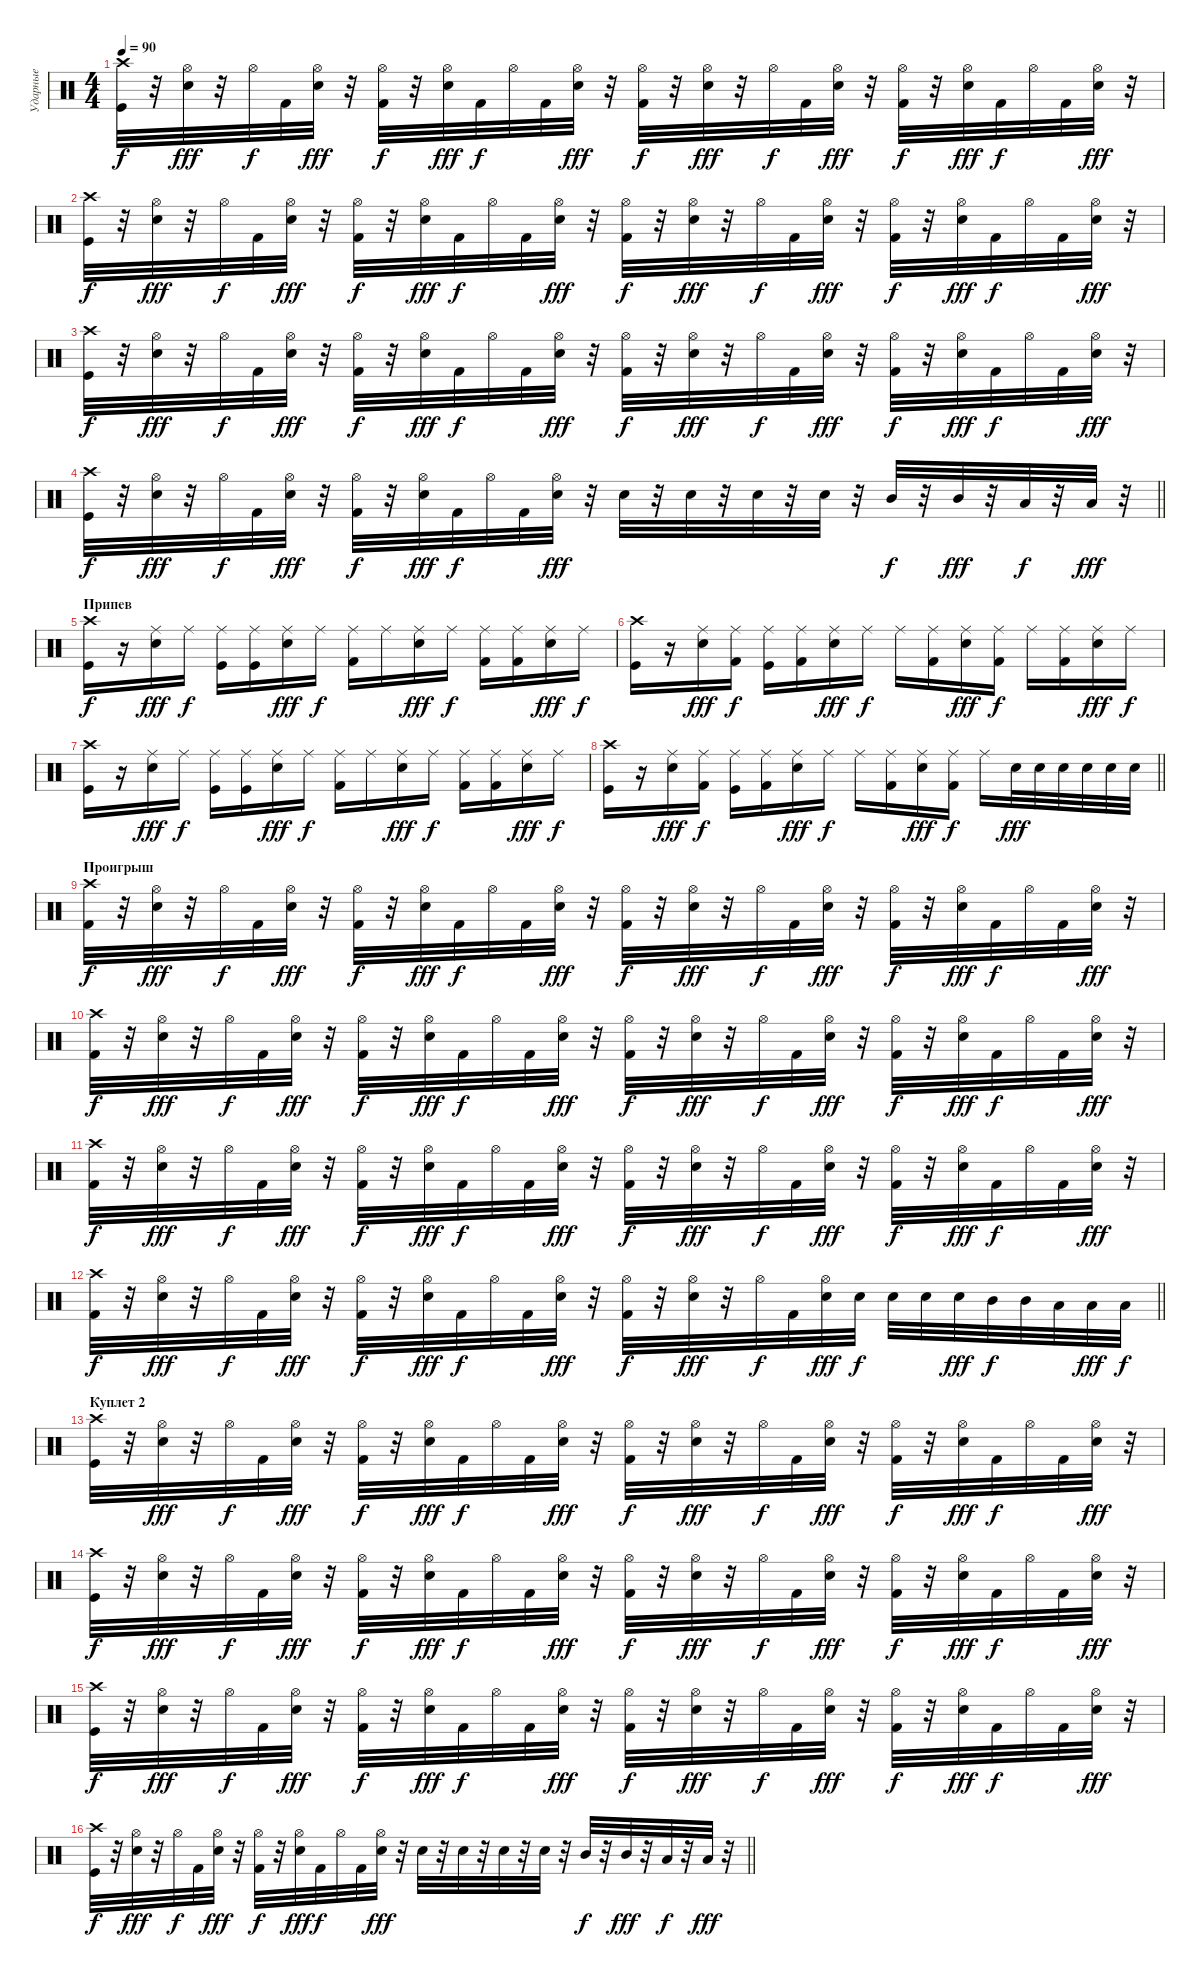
\track ("Ударные" "Ударные") {instrument percussion}
\staff {score}
\articulation defaults
\ts (4 4)
\tempo 90
\clef neutral
\ks c
("Crash high (hit)" "Kick (hit)").32{dy f} r.32 ("Hi-Hat (open)" "Snare (hit) 2").32{dy fff} r.32 "Hi-Hat (open)".32{dy f} "Kick (hit) 2".32 ("Hi-Hat (open)" "Snare (hit) 2").32{dy fff} r.32 ("Hi-Hat (open)" "Kick (hit) 2").32{dy f} r.32 ("Hi-Hat (open)" "Snare (hit) 2").32{dy fff} "Kick (hit) 2".32{dy f} "Hi-Hat (open)".32 "Kick (hit) 2".32 ("Hi-Hat (open)" "Snare (hit) 2").32{dy fff} r.32 ("Hi-Hat (open)" "Kick (hit) 2").32{dy f} r.32 ("Hi-Hat (open)" "Snare (hit) 2").32{dy fff} r.32 "Hi-Hat (open)".32{dy f} "Kick (hit) 2".32 ("Hi-Hat (open)" "Snare (hit) 2").32{dy fff} r.32 ("Hi-Hat (open)" "Kick (hit) 2").32{dy f} r.32 ("Hi-Hat (open)" "Snare (hit) 2").32{dy fff} "Kick (hit) 2".32{dy f} "Hi-Hat (open)".32 "Kick (hit) 2".32 ("Hi-Hat (open)" "Snare (hit) 2").32{dy fff} r.32 |
("Crash high (hit)" "Kick (hit)").32{dy f} r.32 ("Hi-Hat (open)" "Snare (hit) 2").32{dy fff} r.32 "Hi-Hat (open)".32{dy f} "Kick (hit) 2".32 ("Hi-Hat (open)" "Snare (hit) 2").32{dy fff} r.32 ("Hi-Hat (open)" "Kick (hit) 2").32{dy f} r.32 ("Hi-Hat (open)" "Snare (hit) 2").32{dy fff} "Kick (hit) 2".32{dy f} "Hi-Hat (open)".32 "Kick (hit) 2".32 ("Hi-Hat (open)" "Snare (hit) 2").32{dy fff} r.32 ("Hi-Hat (open)" "Kick (hit) 2").32{dy f} r.32 ("Hi-Hat (open)" "Snare (hit) 2").32{dy fff} r.32 "Hi-Hat (open)".32{dy f} "Kick (hit) 2".32 ("Hi-Hat (open)" "Snare (hit) 2").32{dy fff} r.32 ("Hi-Hat (open)" "Kick (hit) 2").32{dy f} r.32 ("Hi-Hat (open)" "Snare (hit) 2").32{dy fff} "Kick (hit) 2".32{dy f} "Hi-Hat (open)".32 "Kick (hit) 2".32 ("Hi-Hat (open)" "Snare (hit) 2").32{dy fff} r.32 |
("Crash high (hit)" "Kick (hit)").32{dy f} r.32 ("Hi-Hat (open)" "Snare (hit) 2").32{dy fff} r.32 "Hi-Hat (open)".32{dy f} "Kick (hit) 2".32 ("Hi-Hat (open)" "Snare (hit) 2").32{dy fff} r.32 ("Hi-Hat (open)" "Kick (hit) 2").32{dy f} r.32 ("Hi-Hat (open)" "Snare (hit) 2").32{dy fff} "Kick (hit) 2".32{dy f} "Hi-Hat (open)".32 "Kick (hit) 2".32 ("Hi-Hat (open)" "Snare (hit) 2").32{dy fff} r.32 ("Hi-Hat (open)" "Kick (hit) 2").32{dy f} r.32 ("Hi-Hat (open)" "Snare (hit) 2").32{dy fff} r.32 "Hi-Hat (open)".32{dy f} "Kick (hit) 2".32 ("Hi-Hat (open)" "Snare (hit) 2").32{dy fff} r.32 ("Hi-Hat (open)" "Kick (hit) 2").32{dy f} r.32 ("Hi-Hat (open)" "Snare (hit) 2").32{dy fff} "Kick (hit) 2".32{dy f} "Hi-Hat (open)".32 "Kick (hit) 2".32 ("Hi-Hat (open)" "Snare (hit) 2").32{dy fff} r.32 |
\barLineRight lightlight
("Crash high (hit)" "Kick (hit)").32{dy f} r.32 ("Hi-Hat (open)" "Snare (hit) 2").32{dy fff} r.32 "Hi-Hat (open)".32{dy f} "Kick (hit) 2".32 ("Hi-Hat (open)" "Snare (hit) 2").32{dy fff} r.32 ("Hi-Hat (open)" "Kick (hit) 2").32{dy f} r.32 ("Hi-Hat (open)" "Snare (hit) 2").32{dy fff} "Kick (hit) 2".32{dy f} "Hi-Hat (open)".32 "Kick (hit) 2".32 ("Hi-Hat (open)" "Snare (hit) 2").32{dy fff} r.32 "Snare (hit) 2".32 r.32 "Snare (hit) 2".32 r.32 "Snare (hit) 2".32 r.32 "Snare (hit) 2".32 r.32 "Mid Tom (hit)".32{dy f} r.32 "Mid Tom (hit)".32{dy fff} r.32 "Low Tom (hit)".32{dy f} r.32 "Low Tom (hit)".32{dy fff} r.32 |
\section ("" "Припев")
("Crash high (hit)" "Kick (hit)").16{dy f} r.16 ("Ride (middle)" "Snare (hit) 2").16{dy fff} "Ride (middle)".16{dy f} ("Ride (middle)" "Kick (hit)").16 ("Ride (middle)" "Kick (hit)").16 ("Ride (middle)" "Snare (hit) 2").16{dy fff} "Ride (middle)".16{dy f} ("Ride (middle)" "Kick (hit) 2").16 "Ride (middle)".16 ("Ride (middle)" "Snare (hit) 2").16{dy fff} "Ride (middle)".16{dy f} ("Ride (middle)" "Kick (hit) 2").16 ("Ride (middle)" "Kick (hit) 2").16 ("Ride (middle)" "Snare (hit) 2").16{dy fff} "Ride (middle)".16{dy f} |
("Crash high (hit)" "Kick (hit)").16 r.16 ("Ride (middle)" "Snare (hit) 2").16{dy fff} ("Ride (middle)" "Kick (hit) 2").16{dy f} ("Ride (middle)" "Kick (hit)").16 ("Ride (middle)" "Kick (hit) 2").16 ("Ride (middle)" "Snare (hit) 2").16{dy fff} "Ride (middle)".16{dy f} "Ride (middle)".16 ("Ride (middle)" "Kick (hit) 2").16 ("Ride (middle)" "Snare (hit) 2").16{dy fff} ("Ride (middle)" "Kick (hit) 2").16{dy f} "Ride (middle)".16 ("Ride (middle)" "Kick (hit) 2").16 ("Ride (middle)" "Snare (hit) 2").16{dy fff} "Ride (middle)".16{dy f} |
("Crash high (hit)" "Kick (hit)").16 r.16 ("Ride (middle)" "Snare (hit) 2").16{dy fff} "Ride (middle)".16{dy f} ("Ride (middle)" "Kick (hit)").16 ("Ride (middle)" "Kick (hit)").16 ("Ride (middle)" "Snare (hit) 2").16{dy fff} "Ride (middle)".16{dy f} ("Ride (middle)" "Kick (hit) 2").16 "Ride (middle)".16 ("Ride (middle)" "Snare (hit) 2").16{dy fff} "Ride (middle)".16{dy f} ("Ride (middle)" "Kick (hit) 2").16 ("Ride (middle)" "Kick (hit) 2").16 ("Ride (middle)" "Snare (hit) 2").16{dy fff} "Ride (middle)".16{dy f} |
\barLineRight lightlight
("Crash high (hit)" "Kick (hit)").16 r.16 ("Ride (middle)" "Snare (hit) 2").16{dy fff} ("Ride (middle)" "Kick (hit) 2").16{dy f} ("Ride (middle)" "Kick (hit)").16 ("Ride (middle)" "Kick (hit) 2").16 ("Ride (middle)" "Snare (hit) 2").16{dy fff} "Ride (middle)".16{dy f} "Ride (middle)".16 ("Ride (middle)" "Kick (hit) 2").16 ("Ride (middle)" "Snare (hit) 2").16{dy fff} ("Ride (middle)" "Kick (hit) 2").16{dy f} "Ride (middle)".16 "Snare (hit) 2".32{dy fff} "Snare (hit) 2".32 "Snare (hit) 2".32 "Snare (hit) 2".32 "Snare (hit) 2".32 "Snare (hit) 2".32 |
\section ("" "Проигрыш")
("Crash high (hit)" "Kick (hit) 2").32{dy f} r.32 ("Hi-Hat (open)" "Snare (hit) 2").32{dy fff} r.32 "Hi-Hat (open)".32{dy f} "Kick (hit) 2".32 ("Hi-Hat (open)" "Snare (hit) 2").32{dy fff} r.32 ("Hi-Hat (open)" "Kick (hit) 2").32{dy f} r.32 ("Hi-Hat (open)" "Snare (hit) 2").32{dy fff} "Kick (hit) 2".32{dy f} "Hi-Hat (open)".32 "Kick (hit) 2".32 ("Hi-Hat (open)" "Snare (hit) 2").32{dy fff} r.32 ("Hi-Hat (open)" "Kick (hit) 2").32{dy f} r.32 ("Hi-Hat (open)" "Snare (hit) 2").32{dy fff} r.32 "Hi-Hat (open)".32{dy f} "Kick (hit) 2".32 ("Hi-Hat (open)" "Snare (hit) 2").32{dy fff} r.32 ("Hi-Hat (open)" "Kick (hit) 2").32{dy f} r.32 ("Hi-Hat (open)" "Snare (hit) 2").32{dy fff} "Kick (hit) 2".32{dy f} "Hi-Hat (open)".32 "Kick (hit) 2".32 ("Hi-Hat (open)" "Snare (hit) 2").32{dy fff} r.32 |
("Crash high (hit)" "Kick (hit) 2").32{dy f} r.32 ("Hi-Hat (open)" "Snare (hit) 2").32{dy fff} r.32 "Hi-Hat (open)".32{dy f} "Kick (hit) 2".32 ("Hi-Hat (open)" "Snare (hit) 2").32{dy fff} r.32 ("Hi-Hat (open)" "Kick (hit) 2").32{dy f} r.32 ("Hi-Hat (open)" "Snare (hit) 2").32{dy fff} "Kick (hit) 2".32{dy f} "Hi-Hat (open)".32 "Kick (hit) 2".32 ("Hi-Hat (open)" "Snare (hit) 2").32{dy fff} r.32 ("Hi-Hat (open)" "Kick (hit) 2").32{dy f} r.32 ("Hi-Hat (open)" "Snare (hit) 2").32{dy fff} r.32 "Hi-Hat (open)".32{dy f} "Kick (hit) 2".32 ("Hi-Hat (open)" "Snare (hit) 2").32{dy fff} r.32 ("Hi-Hat (open)" "Kick (hit) 2").32{dy f} r.32 ("Hi-Hat (open)" "Snare (hit) 2").32{dy fff} "Kick (hit) 2".32{dy f} "Hi-Hat (open)".32 "Kick (hit) 2".32 ("Hi-Hat (open)" "Snare (hit) 2").32{dy fff} r.32 |
("Crash high (hit)" "Kick (hit) 2").32{dy f} r.32 ("Hi-Hat (open)" "Snare (hit) 2").32{dy fff} r.32 "Hi-Hat (open)".32{dy f} "Kick (hit) 2".32 ("Hi-Hat (open)" "Snare (hit) 2").32{dy fff} r.32 ("Hi-Hat (open)" "Kick (hit) 2").32{dy f} r.32 ("Hi-Hat (open)" "Snare (hit) 2").32{dy fff} "Kick (hit) 2".32{dy f} "Hi-Hat (open)".32 "Kick (hit) 2".32 ("Hi-Hat (open)" "Snare (hit) 2").32{dy fff} r.32 ("Hi-Hat (open)" "Kick (hit) 2").32{dy f} r.32 ("Hi-Hat (open)" "Snare (hit) 2").32{dy fff} r.32 "Hi-Hat (open)".32{dy f} "Kick (hit) 2".32 ("Hi-Hat (open)" "Snare (hit) 2").32{dy fff} r.32 ("Hi-Hat (open)" "Kick (hit) 2").32{dy f} r.32 ("Hi-Hat (open)" "Snare (hit) 2").32{dy fff} "Kick (hit) 2".32{dy f} "Hi-Hat (open)".32 "Kick (hit) 2".32 ("Hi-Hat (open)" "Snare (hit) 2").32{dy fff} r.32 |
\barLineRight lightlight
("Crash high (hit)" "Kick (hit) 2").32{dy f} r.32 ("Hi-Hat (open)" "Snare (hit) 2").32{dy fff} r.32 "Hi-Hat (open)".32{dy f} "Kick (hit) 2".32 ("Hi-Hat (open)" "Snare (hit) 2").32{dy fff} r.32 ("Hi-Hat (open)" "Kick (hit) 2").32{dy f} r.32 ("Hi-Hat (open)" "Snare (hit) 2").32{dy fff} "Kick (hit) 2".32{dy f} "Hi-Hat (open)".32 "Kick (hit) 2".32 ("Hi-Hat (open)" "Snare (hit) 2").32{dy fff} r.32 ("Hi-Hat (open)" "Kick (hit) 2").32{dy f} r.32 ("Hi-Hat (open)" "Snare (hit) 2").32{dy fff} r.32 "Hi-Hat (open)".32{dy f} "Kick (hit) 2".32 ("Hi-Hat (open)" "Snare (hit) 2").32{dy fff} "Snare (hit) 2".32{dy f} "Snare (hit) 2".32 "Snare (hit) 2".32 "Snare (hit) 2".32{dy fff} "Mid Tom (hit)".32{dy f} "Mid Tom (hit)".32 "Low Tom (hit)".32 "Low Tom (hit)".32{dy fff} "Low Tom (hit)".32{dy f} |
\section ("" "Куплет 2")
("Crash high (hit)" "Kick (hit)").32 r.32 ("Hi-Hat (open)" "Snare (hit) 2").32{dy fff} r.32 "Hi-Hat (open)".32{dy f} "Kick (hit) 2".32 ("Hi-Hat (open)" "Snare (hit) 2").32{dy fff} r.32 ("Hi-Hat (open)" "Kick (hit) 2").32{dy f} r.32 ("Hi-Hat (open)" "Snare (hit) 2").32{dy fff} "Kick (hit) 2".32{dy f} "Hi-Hat (open)".32 "Kick (hit) 2".32 ("Hi-Hat (open)" "Snare (hit) 2").32{dy fff} r.32 ("Hi-Hat (open)" "Kick (hit) 2").32{dy f} r.32 ("Hi-Hat (open)" "Snare (hit) 2").32{dy fff} r.32 "Hi-Hat (open)".32{dy f} "Kick (hit) 2".32 ("Hi-Hat (open)" "Snare (hit) 2").32{dy fff} r.32 ("Hi-Hat (open)" "Kick (hit) 2").32{dy f} r.32 ("Hi-Hat (open)" "Snare (hit) 2").32{dy fff} "Kick (hit) 2".32{dy f} "Hi-Hat (open)".32 "Kick (hit) 2".32 ("Hi-Hat (open)" "Snare (hit) 2").32{dy fff} r.32 |
("Crash high (hit)" "Kick (hit)").32{dy f} r.32 ("Hi-Hat (open)" "Snare (hit) 2").32{dy fff} r.32 "Hi-Hat (open)".32{dy f} "Kick (hit) 2".32 ("Hi-Hat (open)" "Snare (hit) 2").32{dy fff} r.32 ("Hi-Hat (open)" "Kick (hit) 2").32{dy f} r.32 ("Hi-Hat (open)" "Snare (hit) 2").32{dy fff} "Kick (hit) 2".32{dy f} "Hi-Hat (open)".32 "Kick (hit) 2".32 ("Hi-Hat (open)" "Snare (hit) 2").32{dy fff} r.32 ("Hi-Hat (open)" "Kick (hit) 2").32{dy f} r.32 ("Hi-Hat (open)" "Snare (hit) 2").32{dy fff} r.32 "Hi-Hat (open)".32{dy f} "Kick (hit) 2".32 ("Hi-Hat (open)" "Snare (hit) 2").32{dy fff} r.32 ("Hi-Hat (open)" "Kick (hit) 2").32{dy f} r.32 ("Hi-Hat (open)" "Snare (hit) 2").32{dy fff} "Kick (hit) 2".32{dy f} "Hi-Hat (open)".32 "Kick (hit) 2".32 ("Hi-Hat (open)" "Snare (hit) 2").32{dy fff} r.32 |
("Crash high (hit)" "Kick (hit)").32{dy f} r.32 ("Hi-Hat (open)" "Snare (hit) 2").32{dy fff} r.32 "Hi-Hat (open)".32{dy f} "Kick (hit) 2".32 ("Hi-Hat (open)" "Snare (hit) 2").32{dy fff} r.32 ("Hi-Hat (open)" "Kick (hit) 2").32{dy f} r.32 ("Hi-Hat (open)" "Snare (hit) 2").32{dy fff} "Kick (hit) 2".32{dy f} "Hi-Hat (open)".32 "Kick (hit) 2".32 ("Hi-Hat (open)" "Snare (hit) 2").32{dy fff} r.32 ("Hi-Hat (open)" "Kick (hit) 2").32{dy f} r.32 ("Hi-Hat (open)" "Snare (hit) 2").32{dy fff} r.32 "Hi-Hat (open)".32{dy f} "Kick (hit) 2".32 ("Hi-Hat (open)" "Snare (hit) 2").32{dy fff} r.32 ("Hi-Hat (open)" "Kick (hit) 2").32{dy f} r.32 ("Hi-Hat (open)" "Snare (hit) 2").32{dy fff} "Kick (hit) 2".32{dy f} "Hi-Hat (open)".32 "Kick (hit) 2".32 ("Hi-Hat (open)" "Snare (hit) 2").32{dy fff} r.32 |
\barLineRight lightlight
("Crash high (hit)" "Kick (hit)").32{dy f} r.32 ("Hi-Hat (open)" "Snare (hit) 2").32{dy fff} r.32 "Hi-Hat (open)".32{dy f} "Kick (hit) 2".32 ("Hi-Hat (open)" "Snare (hit) 2").32{dy fff} r.32 ("Hi-Hat (open)" "Kick (hit) 2").32{dy f} r.32 ("Hi-Hat (open)" "Snare (hit) 2").32{dy fff} "Kick (hit) 2".32{dy f} "Hi-Hat (open)".32 "Kick (hit) 2".32 ("Hi-Hat (open)" "Snare (hit) 2").32{dy fff} r.32 "Snare (hit) 2".32 r.32 "Snare (hit) 2".32 r.32 "Snare (hit) 2".32 r.32 "Snare (hit) 2".32 r.32 "Mid Tom (hit)".32{dy f} r.32 "Mid Tom (hit)".32{dy fff} r.32 "Low Tom (hit)".32{dy f} r.32 "Low Tom (hit)".32{dy fff} r.32
